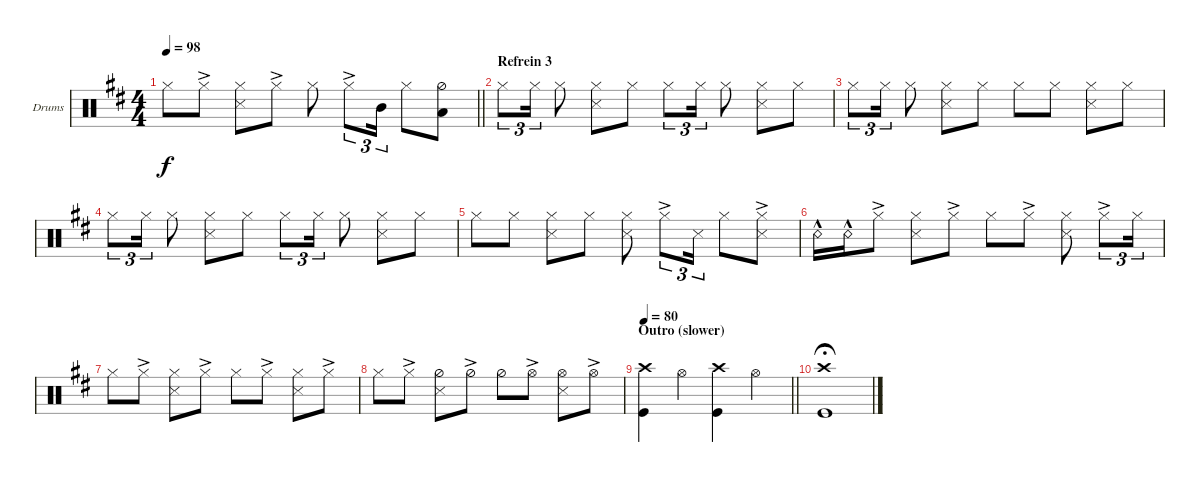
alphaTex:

\bracketExtendMode groupsimilarinstruments
\firstSystemTrackNameOrientation horizontal
\otherSystemsTrackNameOrientation horizontal
\track ("Drumkit" "Drums") {instrument percussion}
\staff {score}
\articulation defaults
\ts (4 4)
\tempo 98
\clef neutral
\barLineRight lightlight
\ks d "Hi-Hat (closed)".8{dy f} "Hi-Hat (closed)"{ac}.8
("Snare (side stick) 3" "Hi-Hat (closed)").8 "Hi-Hat (closed)"{ac}.8 "Hi-Hat (closed)".8 "Hi-Hat (closed)"{ac}.8{tu (3 2)} "Mid Tom (hit)".16{tu (3 2)} "Hi-Hat (closed)".8 ("Hi-Hat (half)" "Low Tom (hit)").8 |
\section ("" "Refrein 3")
"Hi-Hat (closed)".8{tu (3 2)} "Hi-Hat (closed)".16{tu (3 2)} "Hi-Hat (closed)".8 ("Hi-Hat (closed)" "Snare (side stick) 3").8 "Hi-Hat (closed)".8 "Hi-Hat (closed)".8{tu (3 2)} "Hi-Hat (closed)".16{tu (3 2)} "Hi-Hat (closed)".8 ("Hi-Hat (closed)" "Snare (side stick) 3").8 "Hi-Hat (closed)".8 |
"Hi-Hat (closed)".8{tu (3 2)} "Hi-Hat (closed)".16{tu (3 2)} "Hi-Hat (closed)".8 ("Hi-Hat (closed)" "Snare (side stick) 3").8 "Hi-Hat (closed)".8 "Hi-Hat (closed)".8 "Hi-Hat (closed)".8 ("Hi-Hat (closed)" "Snare (side stick) 3").8 "Hi-Hat (closed)".8 |
"Hi-Hat (closed)".8{tu (3 2)} "Hi-Hat (closed)".16{tu (3 2)} "Hi-Hat (closed)".8 ("Hi-Hat (closed)" "Snare (side stick) 3").8 "Hi-Hat (closed)".8 "Hi-Hat (closed)".8{tu (3 2)} "Hi-Hat (closed)".16{tu (3 2)} "Hi-Hat (closed)".8 ("Hi-Hat (closed)" "Snare (side stick) 3").8 "Hi-Hat (closed)".8 |
"Hi-Hat (closed)".8 "Hi-Hat (closed)".8 ("Hi-Hat (closed)" "Snare (side stick) 3").8 "Hi-Hat (closed)".8 ("Hi-Hat (closed)" "Snare (side stick) 3").8 "Hi-Hat (closed)"{ac}.8{tu (3 2)} "Snare (side stick) 3".16{tu (3 2)} "Hi-Hat (closed)".8 ("Hi-Hat (closed)"{ac} "Snare (side stick) 3").8 |
"Snare (rim shot)"{hac}.16 "Snare (rim shot)"{hac}.16 "Hi-Hat (closed)"{ac}.8 ("Snare (side stick) 3" "Hi-Hat (closed)").8 "Hi-Hat (closed)"{ac}.8 "Hi-Hat (closed)".8 "Hi-Hat (closed)"{ac}.8 ("Snare (side stick) 3" "Hi-Hat (closed)").8 "Hi-Hat (closed)"{ac}.8{tu (3 2)} "Hi-Hat (closed)".16{tu (3 2)} |
"Hi-Hat (closed)".8 "Hi-Hat (closed)"{ac}.8 ("Snare (side stick) 3" "Hi-Hat (closed)").8 "Hi-Hat (closed)"{ac}.8 "Hi-Hat (closed)".8 "Hi-Hat (closed)"{ac}.8 ("Snare (side stick) 3" "Hi-Hat (closed)").8 "Hi-Hat (closed)"{ac}.8 |
"Hi-Hat (closed)".8 "Hi-Hat (closed)"{ac}.8 ("Snare (side stick) 3" "Hi-Hat (half)").8 "Hi-Hat (half)"{ac}.8 "Hi-Hat (half)".8 "Hi-Hat (open)"{ac}.8 ("Snare (side stick) 3" "Hi-Hat (open)").8 "Hi-Hat (open)"{ac}.8 |
\section ("" "Outro (slower)")
\tempo 80
\barLineRight lightlight
("Crash high (hit)" "Kick (hit)").4 "Hi-Hat (open)".4 ("Crash high (hit)" "Kick (hit)").4 "Hi-Hat (open)".4 |
("Crash high (hit)" "Kick (hit)").1{fermata (medium 0.35)}
